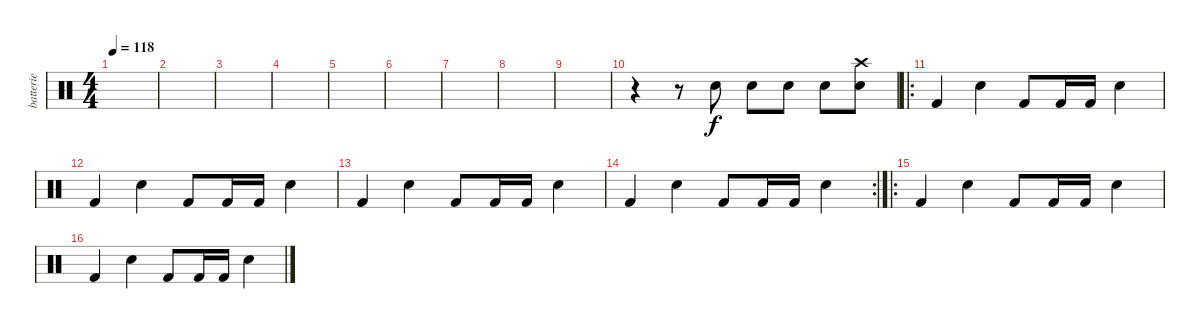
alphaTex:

\track ("batterie" "batterie") {instrument percussion}
\staff {score}
\articulation defaults
\ts (4 4)
\tempo 118
\clef neutral
\ks c
|
|
|
|
|
|
|
|
|
r.4 r.8 "Electric Snare (hit)".8 "Electric Snare (hit)".8 "Electric Snare (hit)".8 "Electric Snare (hit)".8 ("Electric Snare (hit)" "Crash high (hit)").8 |
\ro "Kick (hit) 2".4 "Electric Snare (hit)".4 "Kick (hit) 2".8 "Kick (hit) 2".16 "Kick (hit) 2".16 "Electric Snare (hit)".4
|
"Kick (hit) 2".4 "Electric Snare (hit)".4 "Kick (hit) 2".8 "Kick (hit) 2".16 "Kick (hit) 2".16 "Electric Snare (hit)".4 |
"Kick (hit) 2".4 "Electric Snare (hit)".4 "Kick (hit) 2".8 "Kick (hit) 2".16 "Kick (hit) 2".16 "Electric Snare (hit)".4 |
\rc 2 "Kick (hit) 2".4 "Electric Snare (hit)".4 "Kick (hit) 2".8 "Kick (hit) 2".16 "Kick (hit) 2".16 "Electric Snare (hit)".4
|
\ro "Kick (hit) 2".4 "Electric Snare (hit)".4 "Kick (hit) 2".8 "Kick (hit) 2".16 "Kick (hit) 2".16 "Electric Snare (hit)".4
|
"Kick (hit) 2".4 "Electric Snare (hit)".4 "Kick (hit) 2".8 "Kick (hit) 2".16 "Kick (hit) 2".16 "Electric Snare (hit)".4
